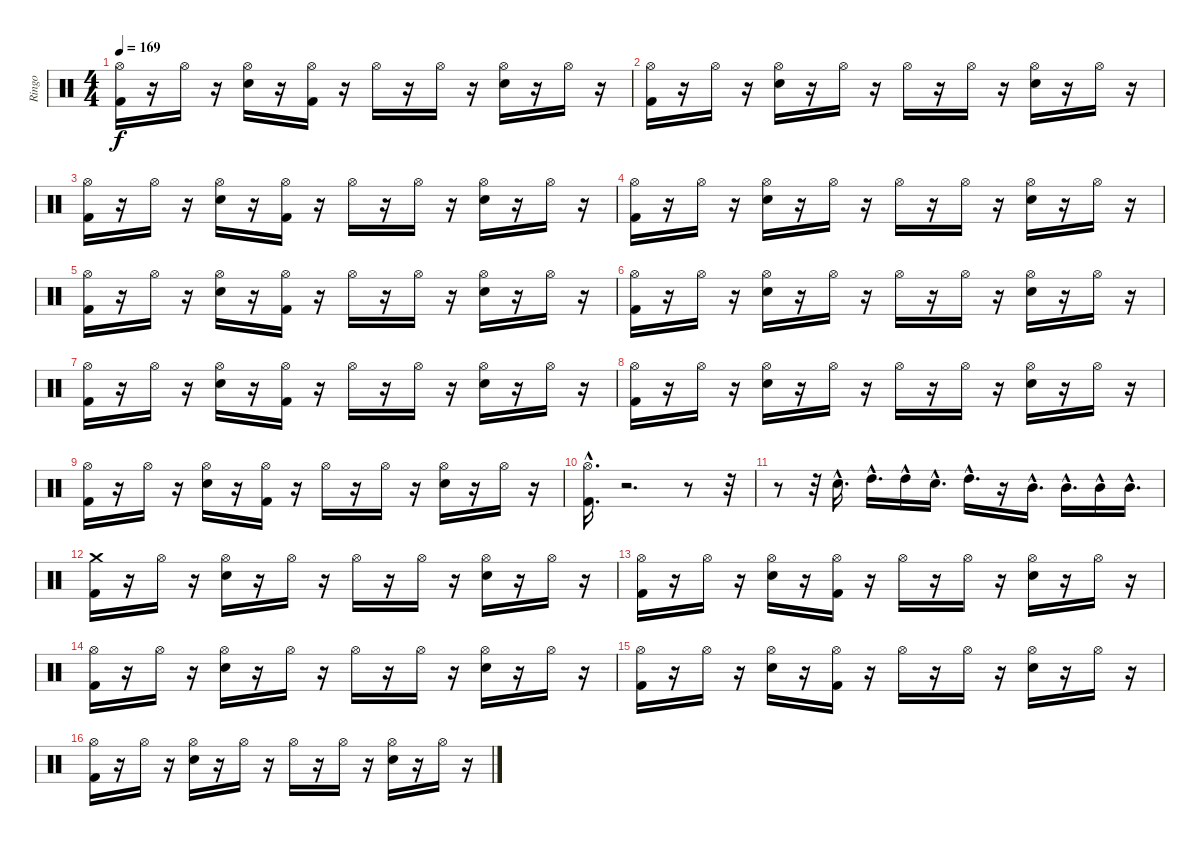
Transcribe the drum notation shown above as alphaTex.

\track ("Ringo" "Ringo") {instrument percussion}
\staff {score}
\articulation defaults
\ts (4 4)
\tempo 169
\clef neutral
\ks c
("Kick (hit) 2" "Hi-Hat (open)").16{dy f} r.16 "Hi-Hat (open)".16 r.16 ("Snare (hit) 2" "Hi-Hat (open)").16 r.16 ("Kick (hit) 2" "Hi-Hat (open)").16 r.16 "Hi-Hat (open)".16 r.16 "Hi-Hat (open)".16 r.16 ("Snare (hit) 2" "Hi-Hat (open)").16 r.16 "Hi-Hat (open)".16 r.16 |
("Kick (hit) 2" "Hi-Hat (open)").16 r.16 "Hi-Hat (open)".16 r.16 ("Snare (hit) 2" "Hi-Hat (open)").16 r.16 "Hi-Hat (open)".16 r.16 "Hi-Hat (open)".16 r.16 "Hi-Hat (open)".16 r.16 ("Snare (hit) 2" "Hi-Hat (open)").16 r.16 "Hi-Hat (open)".16 r.16 |
("Kick (hit) 2" "Hi-Hat (open)").16 r.16 "Hi-Hat (open)".16 r.16 ("Snare (hit) 2" "Hi-Hat (open)").16 r.16 ("Kick (hit) 2" "Hi-Hat (open)").16 r.16 "Hi-Hat (open)".16 r.16 "Hi-Hat (open)".16 r.16 ("Snare (hit) 2" "Hi-Hat (open)").16 r.16 "Hi-Hat (open)".16 r.16 |
("Hi-Hat (open)" "Kick (hit) 2").16 r.16 "Hi-Hat (open)".16 r.16 ("Hi-Hat (open)" "Snare (hit) 2").16 r.16 "Hi-Hat (open)".16 r.16 "Hi-Hat (open)".16 r.16 "Hi-Hat (open)".16 r.16 ("Hi-Hat (open)" "Snare (hit) 2").16 r.16 "Hi-Hat (open)".16 r.16 |
("Hi-Hat (open)" "Kick (hit) 2").16 r.16 "Hi-Hat (open)".16 r.16 ("Hi-Hat (open)" "Snare (hit) 2").16 r.16 ("Hi-Hat (open)" "Kick (hit) 2").16 r.16 "Hi-Hat (open)".16 r.16 "Hi-Hat (open)".16 r.16 ("Hi-Hat (open)" "Snare (hit) 2").16 r.16 "Hi-Hat (open)".16 r.16 |
("Hi-Hat (open)" "Kick (hit) 2").16 r.16 "Hi-Hat (open)".16 r.16 ("Hi-Hat (open)" "Snare (hit) 2").16 r.16 "Hi-Hat (open)".16 r.16 "Hi-Hat (open)".16 r.16 "Hi-Hat (open)".16 r.16 ("Hi-Hat (open)" "Snare (hit) 2").16 r.16 "Hi-Hat (open)".16 r.16 |
("Hi-Hat (open)" "Kick (hit) 2").16 r.16 "Hi-Hat (open)".16 r.16 ("Hi-Hat (open)" "Snare (hit) 2").16 r.16 ("Hi-Hat (open)" "Kick (hit) 2").16 r.16 "Hi-Hat (open)".16 r.16 "Hi-Hat (open)".16 r.16 ("Hi-Hat (open)" "Snare (hit) 2").16 r.16 "Hi-Hat (open)".16 r.16 |
("Hi-Hat (open)" "Kick (hit) 2").16 r.16 "Hi-Hat (open)".16 r.16 ("Hi-Hat (open)" "Snare (hit) 2").16 r.16 "Hi-Hat (open)".16 r.16 "Hi-Hat (open)".16 r.16 "Hi-Hat (open)".16 r.16 ("Hi-Hat (open)" "Snare (hit) 2").16 r.16 "Hi-Hat (open)".16 r.16 |
("Hi-Hat (open)" "Kick (hit) 2").16 r.16 "Hi-Hat (open)".16 r.16 ("Hi-Hat (open)" "Snare (hit) 2").16 r.16 ("Hi-Hat (open)" "Kick (hit) 2").16 r.16 "Hi-Hat (open)".16 r.16 "Hi-Hat (open)".16 r.16 ("Hi-Hat (open)" "Snare (hit) 2").16 r.16 "Hi-Hat (open)".16 r.16 |
("Kick (hit) 2"{hac} "Hi-Hat (open)"{hac}).16{d} r.2{d} r.8 r.32 |
r.8 r.32 "Snare (hit) 2"{hac}.16{d} "High Tom (hit)"{hac}.16{d} "High Tom (hit)"{hac}.16 "Snare (hit) 2"{hac}.16{d} "High Tom (hit)"{hac}.16{d} r.16 "Mid Tom (hit)"{hac}.16{d} "Mid Tom (hit)"{hac}.16{d} "Mid Tom (hit)"{hac}.16 "Mid Tom (hit)"{hac}.16{d} |
("Crash medium (hit)" "Kick (hit) 2").16 r.16 "Hi-Hat (open)".16 r.16 ("Hi-Hat (open)" "Snare (hit) 2").16 r.16 "Hi-Hat (open)".16 r.16 "Hi-Hat (open)".16 r.16 "Hi-Hat (open)".16 r.16 ("Hi-Hat (open)" "Snare (hit) 2").16 r.16 "Hi-Hat (open)".16 r.16 |
("Hi-Hat (open)" "Kick (hit) 2").16 r.16 "Hi-Hat (open)".16 r.16 ("Hi-Hat (open)" "Snare (hit) 2").16 r.16 ("Hi-Hat (open)" "Kick (hit) 2").16 r.16 "Hi-Hat (open)".16 r.16 "Hi-Hat (open)".16 r.16 ("Hi-Hat (open)" "Snare (hit) 2").16 r.16 "Hi-Hat (open)".16 r.16 |
("Hi-Hat (open)" "Kick (hit) 2").16 r.16 "Hi-Hat (open)".16 r.16 ("Hi-Hat (open)" "Snare (hit) 2").16 r.16 "Hi-Hat (open)".16 r.16 "Hi-Hat (open)".16 r.16 "Hi-Hat (open)".16 r.16 ("Hi-Hat (open)" "Snare (hit) 2").16 r.16 "Hi-Hat (open)".16 r.16 |
("Hi-Hat (open)" "Kick (hit) 2").16 r.16 "Hi-Hat (open)".16 r.16 ("Hi-Hat (open)" "Snare (hit) 2").16 r.16 ("Hi-Hat (open)" "Kick (hit) 2").16 r.16 "Hi-Hat (open)".16 r.16 "Hi-Hat (open)".16 r.16 ("Hi-Hat (open)" "Snare (hit) 2").16 r.16 "Hi-Hat (open)".16 r.16 |
("Hi-Hat (open)" "Kick (hit) 2").16 r.16 "Hi-Hat (open)".16 r.16 ("Hi-Hat (open)" "Snare (hit) 2").16 r.16 "Hi-Hat (open)".16 r.16 "Hi-Hat (open)".16 r.16 "Hi-Hat (open)".16 r.16 ("Hi-Hat (open)" "Snare (hit) 2").16 r.16 "Hi-Hat (open)".16 r.16
